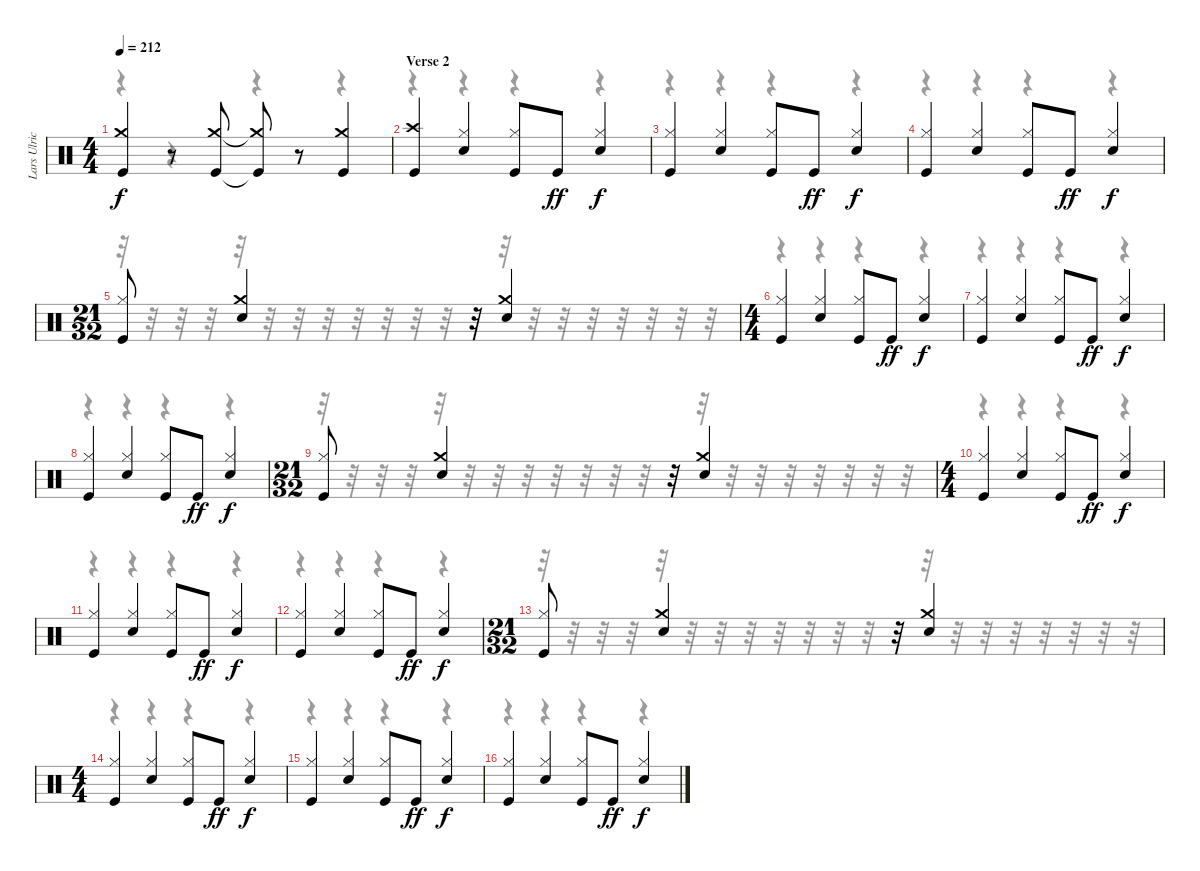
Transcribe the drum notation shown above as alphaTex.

\track ("Lars Ulrich" "Lars Ulric") {instrument percussion}
\staff {score}
\articulation defaults
\voice
\ts (4 4)
\tempo 212
\clef neutral
\ks c
("Crash medium (hit)" "Kick (hit)").4{dy f} r.8 ("Crash medium (hit)" "Kick (hit)").8 ("Crash medium (hit)"{t} "Kick (hit)"{t}).8 r.8 ("Crash medium (hit)" "Kick (hit)").4 |
\section ("" "Verse 2")
("Crash high (hit)" "Kick (hit)").4 ("Hi-Hat (closed)" "Snare (hit) 2").4 ("Hi-Hat (closed)" "Kick (hit)").8 "Kick (hit)".8{dy ff} ("Hi-Hat (closed)" "Snare (hit) 2").4{dy f} |
("Hi-Hat (closed)" "Kick (hit)").4 ("Hi-Hat (closed)" "Snare (hit) 2").4 ("Hi-Hat (closed)" "Kick (hit)").8 "Kick (hit)".8{dy ff} ("Hi-Hat (closed)" "Snare (hit) 2").4{dy f} |
("Hi-Hat (closed)" "Kick (hit)").4 ("Hi-Hat (closed)" "Snare (hit) 2").4 ("Hi-Hat (closed)" "Kick (hit)").8 "Kick (hit)".8{dy ff} ("Hi-Hat (closed)" "Snare (hit) 2").4{dy f} |
\ts (21 32)
("Hi-Hat (closed)" "Kick (hit)").8 ("Crash medium (hit)" "Snare (hit) 2").4 r.32 ("Crash medium (hit)" "Snare (hit) 2").4 |
\ts (4 4)
("Hi-Hat (closed)" "Kick (hit)").4 ("Hi-Hat (closed)" "Snare (hit) 2").4 ("Hi-Hat (closed)" "Kick (hit)").8 "Kick (hit)".8{dy ff} ("Hi-Hat (closed)" "Snare (hit) 2").4{dy f} |
("Hi-Hat (closed)" "Kick (hit)").4 ("Hi-Hat (closed)" "Snare (hit) 2").4 ("Hi-Hat (closed)" "Kick (hit)").8 "Kick (hit)".8{dy ff} ("Hi-Hat (closed)" "Snare (hit) 2").4{dy f} |
("Hi-Hat (closed)" "Kick (hit)").4 ("Hi-Hat (closed)" "Snare (hit) 2").4 ("Hi-Hat (closed)" "Kick (hit)").8 "Kick (hit)".8{dy ff} ("Hi-Hat (closed)" "Snare (hit) 2").4{dy f} |
\ts (21 32)
("Hi-Hat (closed)" "Kick (hit)").8 ("Crash medium (hit)" "Snare (hit) 2").4 r.32 ("Crash medium (hit)" "Snare (hit) 2").4 |
\ts (4 4)
("Hi-Hat (closed)" "Kick (hit)").4 ("Hi-Hat (closed)" "Snare (hit) 2").4 ("Hi-Hat (closed)" "Kick (hit)").8 "Kick (hit)".8{dy ff} ("Hi-Hat (closed)" "Snare (hit) 2").4{dy f} |
("Hi-Hat (closed)" "Kick (hit)").4 ("Hi-Hat (closed)" "Snare (hit) 2").4 ("Hi-Hat (closed)" "Kick (hit)").8 "Kick (hit)".8{dy ff} ("Hi-Hat (closed)" "Snare (hit) 2").4{dy f} |
("Hi-Hat (closed)" "Kick (hit)").4 ("Hi-Hat (closed)" "Snare (hit) 2").4 ("Hi-Hat (closed)" "Kick (hit)").8 "Kick (hit)".8{dy ff} ("Hi-Hat (closed)" "Snare (hit) 2").4{dy f} |
\ts (21 32)
("Hi-Hat (closed)" "Kick (hit)").8 ("Crash medium (hit)" "Snare (hit) 2").4 r.32 ("Crash medium (hit)" "Snare (hit) 2").4 |
\ts (4 4)
("Hi-Hat (closed)" "Kick (hit)").4 ("Hi-Hat (closed)" "Snare (hit) 2").4 ("Hi-Hat (closed)" "Kick (hit)").8 "Kick (hit)".8{dy ff} ("Hi-Hat (closed)" "Snare (hit) 2").4{dy f} |
("Hi-Hat (closed)" "Kick (hit)").4 ("Hi-Hat (closed)" "Snare (hit) 2").4 ("Hi-Hat (closed)" "Kick (hit)").8 "Kick (hit)".8{dy ff} ("Hi-Hat (closed)" "Snare (hit) 2").4{dy f} |
("Hi-Hat (closed)" "Kick (hit)").4 ("Hi-Hat (closed)" "Snare (hit) 2").4 ("Hi-Hat (closed)" "Kick (hit)").8 "Kick (hit)".8{dy ff} ("Hi-Hat (closed)" "Snare (hit) 2").4{dy f}
\voice
\clef neutral
\ottava regular
\simile none
\ks c
r.4{dy f} r.4 r.4 r.4 |
r.4 r.4 r.4 r.4 |
r.4 r.4 r.4 r.4 |
r.4 r.4 r.4 r.4 |
r.32 r.32 r.32 r.32 r.32 r.32 r.32 r.32 r.32 r.32 r.32 r.32 r.32 r.32 r.32 r.32 r.32 r.32 r.32 r.32 r.32 |
r.4 r.4 r.4 r.4 |
r.4 r.4 r.4 r.4 |
r.4 r.4 r.4 r.4 |
r.32 r.32 r.32 r.32 r.32 r.32 r.32 r.32 r.32 r.32 r.32 r.32 r.32 r.32 r.32 r.32 r.32 r.32 r.32 r.32 r.32 |
r.4 r.4 r.4 r.4 |
r.4 r.4 r.4 r.4 |
r.4 r.4 r.4 r.4 |
r.32 r.32 r.32 r.32 r.32 r.32 r.32 r.32 r.32 r.32 r.32 r.32 r.32 r.32 r.32 r.32 r.32 r.32 r.32 r.32 r.32 |
r.4 r.4 r.4 r.4 |
r.4 r.4 r.4 r.4 |
r.4 r.4 r.4 r.4
